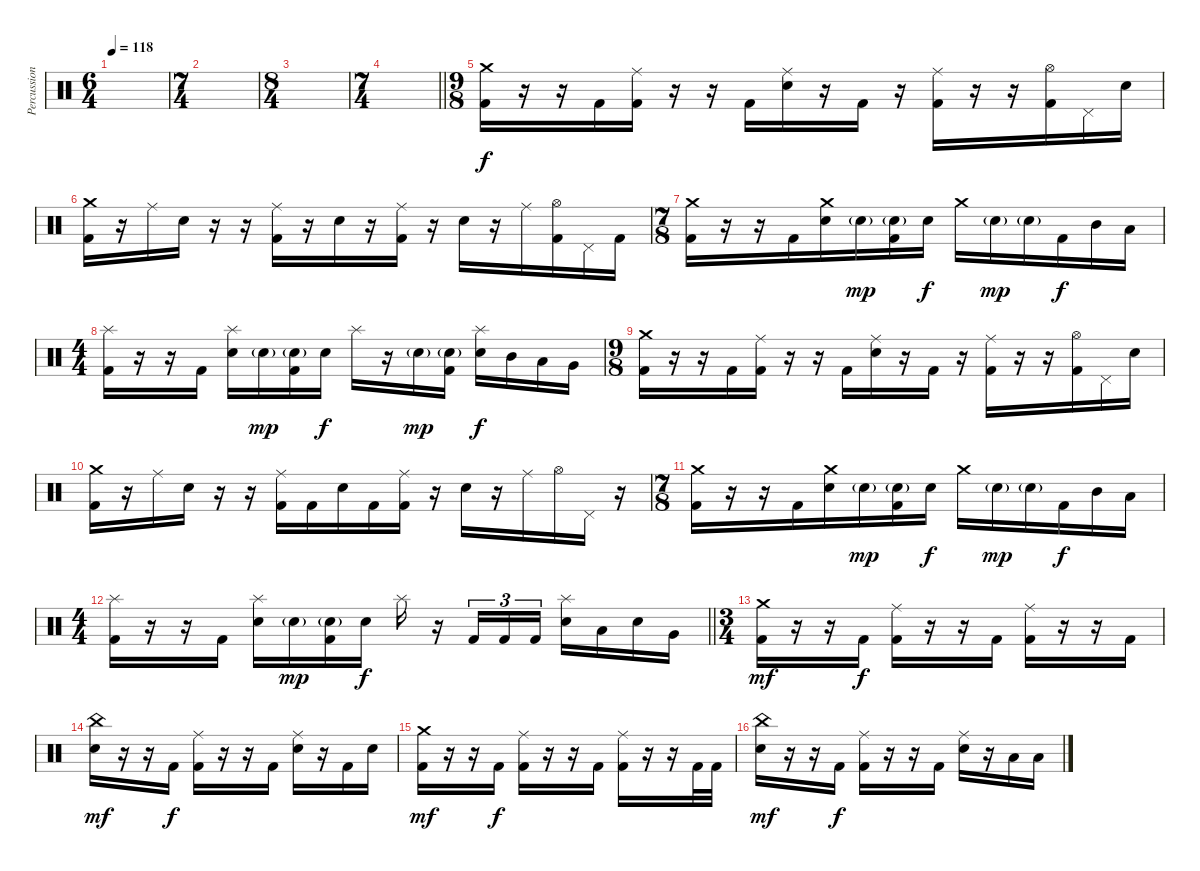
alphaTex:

\track ("Percussions" "Percussion") {instrument percussion}
\staff {score}
\articulation defaults
\ts (6 4)
\section ("" "")
\tempo 118
\clef neutral
\ks c
|
\ts (7 4)
|
\ts (8 4)
|
\ts (7 4)
\barLineRight lightlight
|
\ts (9 8)
\section ("" "")
("Crash medium (hit)" "Kick (hit) 2").16 r.16 r.16 "Kick (hit) 2".16 ("Ride (middle)" "Kick (hit) 2").16 r.16 r.16 "Kick (hit) 2".16 ("Ride (middle)" "Electric Snare (hit)").16 r.16 "Kick (hit) 2".16 r.16 ("Ride (middle)" "Kick (hit) 2").16 r.16 r.16 ("Hi-Hat (open)" "Kick (hit) 2").16 "Pedal Hi-Hat (hit)".16 "Electric Snare (hit)".16 |
("Crash medium (hit)" "Kick (hit) 2").16 r.16 "Ride (middle)".16 "Electric Snare (hit)".16 r.16 r.16 ("Ride (middle)" "Kick (hit) 2").16 r.16 "Electric Snare (hit)".16 r.16 ("Ride (middle)" "Kick (hit) 2").16 r.16 "Electric Snare (hit)".16 r.16 "Ride (middle)".16 ("Hi-Hat (open)" "Kick (hit) 2").16 "Pedal Hi-Hat (hit)".16 "Kick (hit) 2".16 |
\ts (7 8)
("Crash medium (hit)" "Kick (hit) 2").16 r.16 r.16 "Kick (hit) 2".16 ("Crash medium (hit)" "Electric Snare (hit)").16 "Electric Snare (hit)"{g}.16{dy mp} ("Electric Snare (hit)"{g} "Kick (hit) 2").16 "Electric Snare (hit)".16{dy f} "Crash medium (hit)".16 "Electric Snare (hit)"{g}.16{dy mp} "Electric Snare (hit)"{g}.16 "Kick (hit) 2".16{dy f} "Mid Tom (hit)".16 "Low Tom (hit)".16 |
\ts (4 4)
("Splash (hit)" "Kick (hit) 2").16 r.16 r.16 "Kick (hit) 2".16 ("Splash (hit)" "Electric Snare (hit)").16 "Electric Snare (hit)"{g}.16{dy mp} ("Electric Snare (hit)"{g} "Kick (hit) 2").16 "Electric Snare (hit)".16{dy f} "Splash (hit)".16 r.16 "Electric Snare (hit)"{g}.16{dy mp} ("Electric Snare (hit)"{g} "Kick (hit) 2").16 ("Splash (hit)" "Electric Snare (hit)").16{dy f} "Mid Tom (hit)".16 "Low Tom (hit)".16 "Very Low Tom (hit)".16 |
\ts (9 8)
("Crash medium (hit)" "Kick (hit) 2").16 r.16 r.16 "Kick (hit) 2".16 ("Ride (middle)" "Kick (hit) 2").16 r.16 r.16 "Kick (hit) 2".16 ("Ride (middle)" "Electric Snare (hit)").16 r.16 "Kick (hit) 2".16 r.16 ("Ride (middle)" "Kick (hit) 2").16 r.16 r.16 ("Hi-Hat (open)" "Kick (hit) 2").16 "Pedal Hi-Hat (hit)".16 "Electric Snare (hit)".16 |
("Crash medium (hit)" "Kick (hit) 2").16 r.16 "Ride (middle)".16 "Electric Snare (hit)".16 r.16 r.16 ("Ride (middle)" "Kick (hit) 2").16 "Kick (hit) 2".16 "Electric Snare (hit)".16 "Kick (hit) 2".16 ("Ride (middle)" "Kick (hit) 2").16 r.16 "Electric Snare (hit)".16 r.16 "Ride (middle)".16 "Hi-Hat (open)".16 "Pedal Hi-Hat (hit)".16 r.16 |
\ts (7 8)
("Crash medium (hit)" "Kick (hit) 2").16 r.16 r.16 "Kick (hit) 2".16 ("Crash medium (hit)" "Electric Snare (hit)").16 "Electric Snare (hit)"{g}.16{dy mp} ("Electric Snare (hit)"{g} "Kick (hit) 2").16 "Electric Snare (hit)".16{dy f} "Crash medium (hit)".16 "Electric Snare (hit)"{g}.16{dy mp} "Electric Snare (hit)"{g}.16 "Kick (hit) 2".16{dy f} "Mid Tom (hit)".16 "Low Tom (hit)".16 |
\ts (4 4)
\barLineRight lightlight
("Splash (hit)" "Kick (hit) 2").16 r.16 r.16 "Kick (hit) 2".16 ("Splash (hit)" "Electric Snare (hit)").16 "Electric Snare (hit)"{g}.16{dy mp} ("Electric Snare (hit)"{g} "Kick (hit) 2").16 "Electric Snare (hit)".16{dy f} "Splash (hit)".16 r.16 "Kick (hit) 2".16{tu (3 2)} "Kick (hit) 2".16{tu (3 2)} "Kick (hit) 2".16{tu (3 2)} ("Splash (hit)" "Electric Snare (hit)").16 "Low Tom (hit)".16 "Electric Snare (hit)".16 "Very Low Tom (hit)".16 |
\ts (3 4)
\section ("" "")
("Crash medium (hit)" "Kick (hit) 2").16{dy mf} r.16 r.16 "Kick (hit) 2".16{dy f} ("Ride (middle)" "Kick (hit) 2").16 r.16 r.16 "Kick (hit) 2".16 ("Ride (middle)" "Kick (hit) 2").16 r.16 r.16 "Kick (hit) 2".16 |
("China (hit)" "Electric Snare (hit)").16{dy mf} r.16 r.16 "Kick (hit) 2".16{dy f} ("Ride (middle)" "Kick (hit) 2").16 r.16 r.16 "Kick (hit) 2".16 ("Ride (middle)" "Electric Snare (hit)").16 r.16 "Kick (hit) 2".16 "Electric Snare (hit)".16 |
("Crash medium (hit)" "Kick (hit) 2").16{dy mf} r.16 r.16 "Kick (hit) 2".16{dy f} ("Ride (middle)" "Kick (hit) 2").16 r.16 r.16 "Kick (hit) 2".16 ("Ride (middle)" "Kick (hit) 2").16 r.16 r.16 "Kick (hit) 2".32 "Kick (hit) 2".32 |
("China (hit)" "Electric Snare (hit)").16{dy mf} r.16 r.16 "Kick (hit) 2".16{dy f} ("Ride (middle)" "Kick (hit) 2").16 r.16 r.16 "Kick (hit) 2".16 ("Ride (middle)" "Electric Snare (hit)").16 r.16 "Low Tom (hit)".16 "Low Floor Tom (hit)".16
